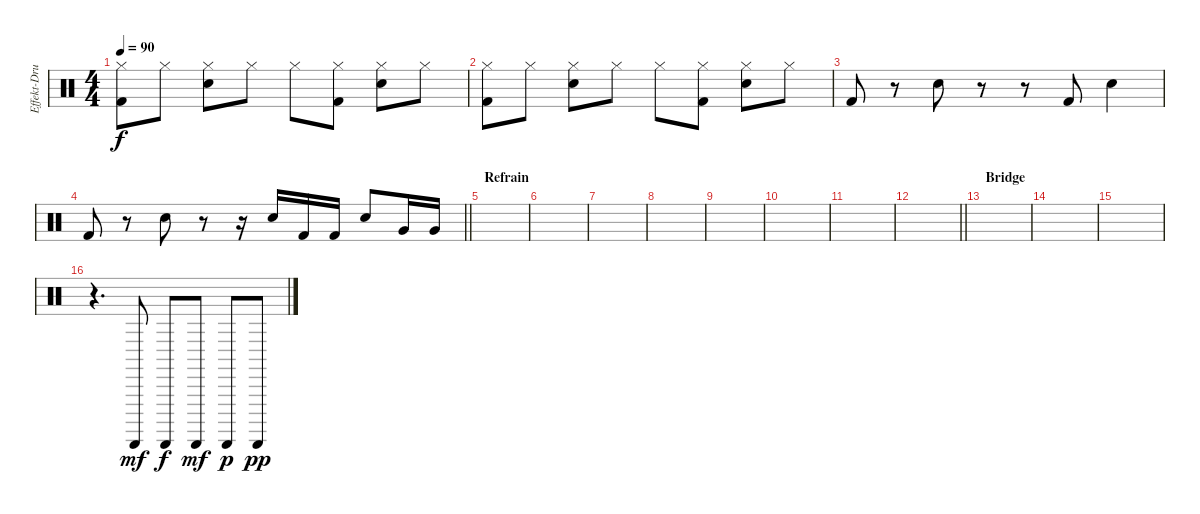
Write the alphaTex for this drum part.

\track ("Effekt-Drums" "Effekt-Dru") {instrument percussion}
\staff {score}
\articulation defaults
\ts (4 4)
\tempo 90
\clef neutral
\ks c
("Hi-Hat (closed)" "Kick (hit) 2").8{dy f} "Hi-Hat (closed)".8 ("Snare (hit) 2" "Hi-Hat (closed)").8 "Hi-Hat (closed)".8 "Hi-Hat (closed)".8 ("Hi-Hat (closed)" "Kick (hit) 2").8 ("Snare (hit) 2" "Hi-Hat (closed)").8 "Hi-Hat (closed)".8 |
("Hi-Hat (closed)" "Kick (hit) 2").8 "Hi-Hat (closed)".8 ("Snare (hit) 2" "Hi-Hat (closed)").8 "Hi-Hat (closed)".8 "Hi-Hat (closed)".8 ("Hi-Hat (closed)" "Kick (hit) 2").8 ("Snare (hit) 2" "Hi-Hat (closed)").8 "Hi-Hat (closed)".8 |
"Kick (hit) 2".8 r.8 "Snare (hit) 2".8 r.8 r.8 "Kick (hit) 2".8 "Snare (hit) 2".4 |
\barLineRight lightlight "Kick (hit) 2".8
r.8 "Snare (hit) 2".8 r.8 r.16 "Snare (hit) 2".16 "Kick (hit) 2".16 "Kick (hit) 2".16 "Snare (hit) 2".8 "Very Low Tom (hit)".16 "Very Low Tom (hit)".16 |
\section ("" "Refrain")
|
|
|
|
|
|
|
\barLineRight lightlight
|
\section ("" "Bridge")
|
|
|
r.4{d volume 3} "Guiro (scrap-return)".8{dy mf} "Guiro (scrap-return)".8{dy f} "Guiro (scrap-return)".8{dy mf} "Guiro (scrap-return)".8{dy p} "Guiro (scrap-return)".8{dy pp}
